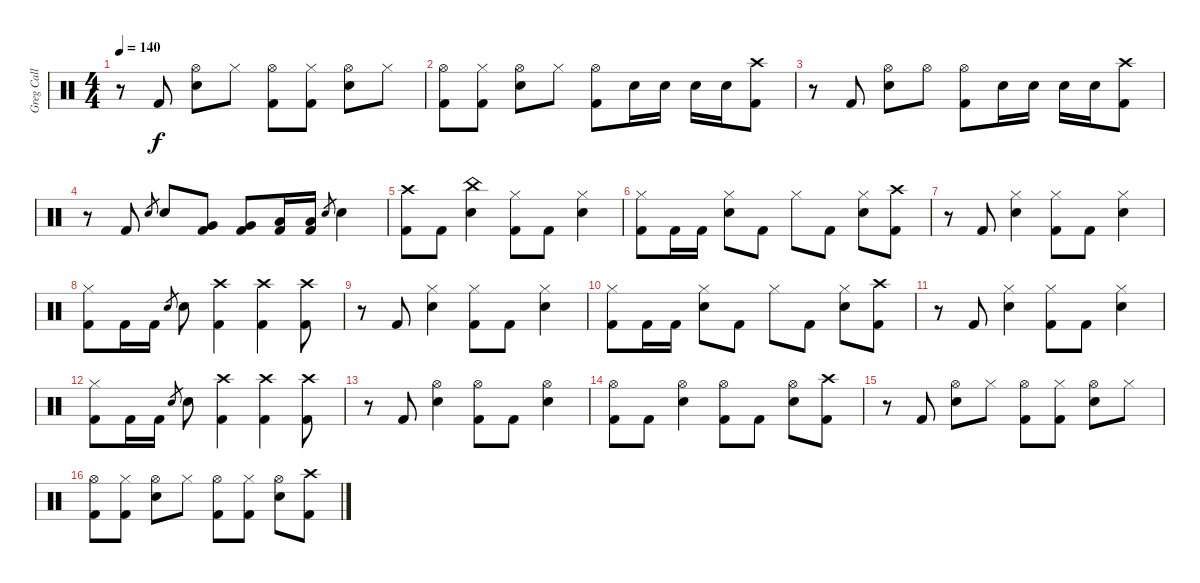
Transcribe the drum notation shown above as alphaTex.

\track ("Greg Call (Drums)" "Greg Call ") {instrument percussion}
\staff {score}
\articulation defaults
\ts (4 4)
\tempo 140
\clef neutral
\ks c
r.8{dy f} "Kick (hit) 2".8 ("Hi-Hat (open)" "Snare (hit) 2").8 "Hi-Hat (closed)".8 ("Hi-Hat (open)" "Kick (hit) 2").8 ("Hi-Hat (closed)" "Kick (hit) 2").8 ("Hi-Hat (open)" "Snare (hit) 2").8 "Hi-Hat (closed)".8 |
("Hi-Hat (open)" "Kick (hit) 2").8 ("Hi-Hat (closed)" "Kick (hit) 2").8 ("Hi-Hat (open)" "Snare (hit) 2").8 "Hi-Hat (closed)".8 ("Hi-Hat (open)" "Kick (hit) 2").8 "Snare (hit) 2".16 "Snare (hit) 2".16 "Snare (hit) 2".16 "Snare (hit) 2".16 ("Crash high (hit)" "Kick (hit) 2").8 |
r.8 "Kick (hit) 2".8 ("Hi-Hat (open)" "Snare (hit) 2").8 "Hi-Hat (open)".8 ("Hi-Hat (open)" "Kick (hit) 2").8 "Snare (hit) 2".16 "Snare (hit) 2".16 "Snare (hit) 2".16 "Snare (hit) 2".16 ("Crash high (hit)" "Kick (hit) 2").8 |
r.8 "Kick (hit) 2".8 "Snare (hit) 2".8{gr} "Snare (hit) 2".8 ("Very Low Tom (hit)" "Kick (hit) 2").8 ("Very Low Tom (hit)" "Kick (hit) 2").8 ("Low Floor Tom (hit)" "Kick (hit) 2").16 ("Low Floor Tom (hit)" "Kick (hit) 2").16 "Snare (hit) 2".8{gr} "Snare (hit) 2".4 |
("Crash high (hit)" "Kick (hit) 2").8 "Kick (hit) 2".8 ("China (hit)" "Snare (hit) 2").4 ("Hi-Hat (closed)" "Kick (hit) 2").8 "Kick (hit) 2".8 ("Hi-Hat (closed)" "Snare (hit) 2").4 |
("Hi-Hat (closed)" "Kick (hit) 2").8 "Kick (hit) 2".16 "Kick (hit) 2".16 ("Hi-Hat (closed)" "Snare (hit) 2").8 "Kick (hit) 2".8 "Hi-Hat (closed)".8 "Kick (hit) 2".8 ("Hi-Hat (closed)" "Snare (hit) 2").8 ("Crash high (hit)" "Kick (hit) 2").8 |
r.8 "Kick (hit) 2".8 ("Hi-Hat (closed)" "Snare (hit) 2").4 ("Hi-Hat (closed)" "Kick (hit) 2").8 "Kick (hit) 2".8 ("Hi-Hat (closed)" "Snare (hit) 2").4 |
("Hi-Hat (closed)" "Kick (hit) 2").8 "Kick (hit) 2".16 "Kick (hit) 2".16 "Snare (hit) 2".8{gr} "Snare (hit) 2".8 ("Crash high (hit)" "Kick (hit) 2").4 ("Crash high (hit)" "Kick (hit) 2").4 ("Crash high (hit)" "Kick (hit) 2").8 |
r.8 "Kick (hit) 2".8 ("Hi-Hat (closed)" "Snare (hit) 2").4 ("Hi-Hat (closed)" "Kick (hit) 2").8 "Kick (hit) 2".8 ("Hi-Hat (closed)" "Snare (hit) 2").4 |
("Hi-Hat (closed)" "Kick (hit) 2").8 "Kick (hit) 2".16 "Kick (hit) 2".16 ("Hi-Hat (closed)" "Snare (hit) 2").8 "Kick (hit) 2".8 "Hi-Hat (closed)".8 "Kick (hit) 2".8 ("Hi-Hat (closed)" "Snare (hit) 2").8 ("Crash high (hit)" "Kick (hit) 2").8 |
r.8 "Kick (hit) 2".8 ("Hi-Hat (closed)" "Snare (hit) 2").4 ("Hi-Hat (closed)" "Kick (hit) 2").8 "Kick (hit) 2".8 ("Hi-Hat (closed)" "Snare (hit) 2").4 |
("Hi-Hat (closed)" "Kick (hit) 2").8 "Kick (hit) 2".16 "Kick (hit) 2".16 "Snare (hit) 2".8{gr} "Snare (hit) 2".8 ("Crash high (hit)" "Kick (hit) 2").4 ("Crash high (hit)" "Kick (hit) 2").4 ("Crash high (hit)" "Kick (hit) 2").8 |
r.8 "Kick (hit) 2".8 ("Hi-Hat (open)" "Snare (hit) 2").4 ("Hi-Hat (open)" "Kick (hit) 2").8 "Kick (hit) 2".8 ("Hi-Hat (open)" "Snare (hit) 2").4 |
("Hi-Hat (open)" "Kick (hit) 2").8 "Kick (hit) 2".8 ("Hi-Hat (open)" "Snare (hit) 2").4 ("Hi-Hat (open)" "Kick (hit) 2").8 "Kick (hit) 2".8 ("Hi-Hat (open)" "Snare (hit) 2").8 ("Crash high (hit)" "Kick (hit) 2").8 |
r.8 "Kick (hit) 2".8 ("Hi-Hat (open)" "Snare (hit) 2").8 "Hi-Hat (closed)".8 ("Hi-Hat (open)" "Kick (hit) 2").8 ("Hi-Hat (closed)" "Kick (hit) 2").8 ("Hi-Hat (open)" "Snare (hit) 2").8 "Hi-Hat (closed)".8 |
("Hi-Hat (open)" "Kick (hit) 2").8 ("Hi-Hat (closed)" "Kick (hit) 2").8 ("Hi-Hat (open)" "Snare (hit) 2").8 "Hi-Hat (closed)".8 ("Hi-Hat (open)" "Kick (hit) 2").8 ("Hi-Hat (closed)" "Kick (hit) 2").8 ("Hi-Hat (open)" "Snare (hit) 2").8 ("Crash high (hit)" "Kick (hit) 2").8
